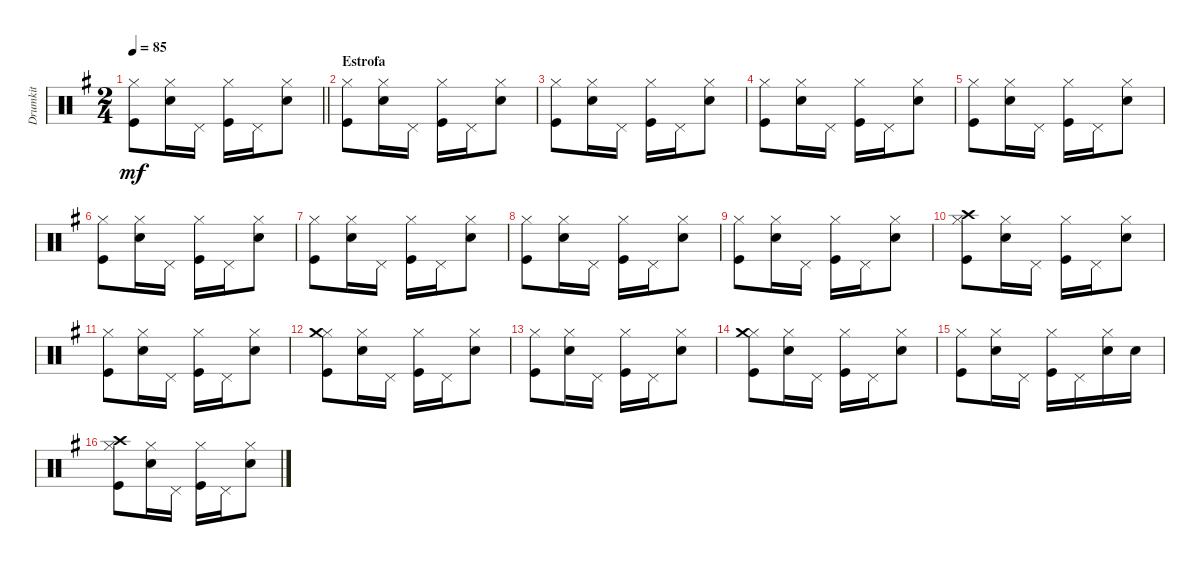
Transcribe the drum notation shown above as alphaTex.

\track ("Drumkit" "Drumkit") {instrument percussion}
\staff {score}
\articulation defaults
\ts (2 4)
\tempo 85
\clef neutral
\barLineRight lightlight
\ks g
("Kick (hit)" "Hi-Hat (closed)").8{dy mf} ("Snare (hit) 2" "Hi-Hat (closed)").16 "Pedal Hi-Hat (hit)".16 ("Kick (hit)" "Hi-Hat (closed)").16 "Pedal Hi-Hat (hit)".16 ("Snare (hit) 2" "Hi-Hat (closed)").8 |
\section ("" "Estrofa")
("Kick (hit)" "Hi-Hat (closed)").8 ("Snare (hit) 2" "Hi-Hat (closed)").16 "Pedal Hi-Hat (hit)".16 ("Kick (hit)" "Hi-Hat (closed)").16 "Pedal Hi-Hat (hit)".16 ("Snare (hit) 2" "Hi-Hat (closed)").8 |
("Kick (hit)" "Hi-Hat (closed)").8 ("Snare (hit) 2" "Hi-Hat (closed)").16 "Pedal Hi-Hat (hit)".16 ("Kick (hit)" "Hi-Hat (closed)").16 "Pedal Hi-Hat (hit)".16 ("Snare (hit) 2" "Hi-Hat (closed)").8 |
("Kick (hit)" "Hi-Hat (closed)").8 ("Snare (hit) 2" "Hi-Hat (closed)").16 "Pedal Hi-Hat (hit)".16 ("Kick (hit)" "Hi-Hat (closed)").16 "Pedal Hi-Hat (hit)".16 ("Snare (hit) 2" "Hi-Hat (closed)").8 |
("Kick (hit)" "Hi-Hat (closed)").8 ("Snare (hit) 2" "Hi-Hat (closed)").16 "Pedal Hi-Hat (hit)".16 ("Kick (hit)" "Hi-Hat (closed)").16 "Pedal Hi-Hat (hit)".16 ("Snare (hit) 2" "Hi-Hat (closed)").8 |
("Kick (hit)" "Hi-Hat (closed)").8 ("Snare (hit) 2" "Hi-Hat (closed)").16 "Pedal Hi-Hat (hit)".16 ("Kick (hit)" "Hi-Hat (closed)").16 "Pedal Hi-Hat (hit)".16 ("Snare (hit) 2" "Hi-Hat (closed)").8 |
("Kick (hit)" "Hi-Hat (closed)").8 ("Snare (hit) 2" "Hi-Hat (closed)").16 "Pedal Hi-Hat (hit)".16 ("Kick (hit)" "Hi-Hat (closed)").16 "Pedal Hi-Hat (hit)".16 ("Snare (hit) 2" "Hi-Hat (closed)").8 |
("Kick (hit)" "Hi-Hat (closed)").8 ("Snare (hit) 2" "Hi-Hat (closed)").16 "Pedal Hi-Hat (hit)".16 ("Kick (hit)" "Hi-Hat (closed)").16 "Pedal Hi-Hat (hit)".16 ("Snare (hit) 2" "Hi-Hat (closed)").8 |
("Kick (hit)" "Hi-Hat (closed)").8 ("Snare (hit) 2" "Hi-Hat (closed)").16 "Pedal Hi-Hat (hit)".16 ("Kick (hit)" "Hi-Hat (closed)").16 "Pedal Hi-Hat (hit)".16 ("Snare (hit) 2" "Hi-Hat (closed)").8 |
("Kick (hit)" "Hi-Hat (closed)" "Crash high (hit)").8 ("Snare (hit) 2" "Hi-Hat (closed)").16 "Pedal Hi-Hat (hit)".16 ("Kick (hit)" "Hi-Hat (closed)").16 "Pedal Hi-Hat (hit)".16 ("Snare (hit) 2" "Hi-Hat (closed)").8 |
("Kick (hit)" "Hi-Hat (closed)").8 ("Snare (hit) 2" "Hi-Hat (closed)").16 "Pedal Hi-Hat (hit)".16 ("Kick (hit)" "Hi-Hat (closed)").16 "Pedal Hi-Hat (hit)".16 ("Snare (hit) 2" "Hi-Hat (closed)").8 |
("Kick (hit)" "Hi-Hat (closed)" "Crash medium (hit)").8 ("Snare (hit) 2" "Hi-Hat (closed)").16 "Pedal Hi-Hat (hit)".16 ("Kick (hit)" "Hi-Hat (closed)").16 "Pedal Hi-Hat (hit)".16 ("Snare (hit) 2" "Hi-Hat (closed)").8 |
("Kick (hit)" "Hi-Hat (closed)").8 ("Snare (hit) 2" "Hi-Hat (closed)").16 "Pedal Hi-Hat (hit)".16 ("Kick (hit)" "Hi-Hat (closed)").16 "Pedal Hi-Hat (hit)".16 ("Snare (hit) 2" "Hi-Hat (closed)").8 |
("Kick (hit)" "Hi-Hat (closed)" "Crash medium (hit)").8 ("Snare (hit) 2" "Hi-Hat (closed)").16 "Pedal Hi-Hat (hit)".16 ("Kick (hit)" "Hi-Hat (closed)").16 "Pedal Hi-Hat (hit)".16 ("Snare (hit) 2" "Hi-Hat (closed)").8 |
("Kick (hit)" "Hi-Hat (closed)").8 ("Snare (hit) 2" "Hi-Hat (closed)").16 "Pedal Hi-Hat (hit)".16 ("Kick (hit)" "Hi-Hat (closed)").16 "Pedal Hi-Hat (hit)".16 ("Snare (hit) 2" "Hi-Hat (closed)").16 "Snare (hit) 2".16 |
("Kick (hit)" "Hi-Hat (closed)" "Crash high (hit)").8 ("Snare (hit) 2" "Hi-Hat (closed)").16 "Pedal Hi-Hat (hit)".16 ("Kick (hit)" "Hi-Hat (closed)").16 "Pedal Hi-Hat (hit)".16 ("Snare (hit) 2" "Hi-Hat (closed)").8
